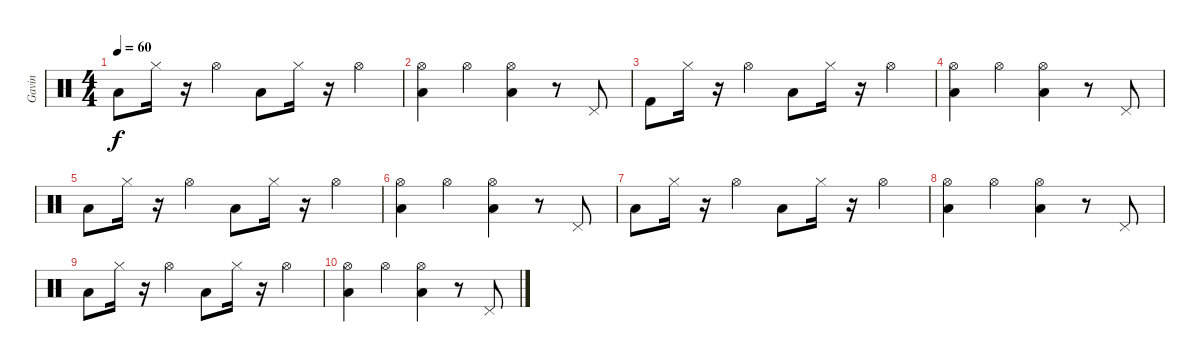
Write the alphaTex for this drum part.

\track ("Gavin" "Gavin") {instrument percussion}
\staff {score}
\articulation defaults
\ts (4 4)
\tempo 60
\clef neutral
\ks c "Low Floor Tom (hit)".8{dy f} "Hi-Hat (closed)".16
r.16 "Hi-Hat (open)".4 "Low Floor Tom (hit)".8 "Hi-Hat (closed)".16 r.16 "Hi-Hat (open)".4 |
("Hi-Hat (open)" "Low Floor Tom (hit)").4 "Hi-Hat (open)".4 ("Hi-Hat (open)" "Low Floor Tom (hit)").4 r.8 "Pedal Hi-Hat (hit)".8 |
"Kick (hit) 2".8 "Hi-Hat (closed)".16 r.16 "Hi-Hat (open)".4 "Low Floor Tom (hit)".8 "Hi-Hat (closed)".16 r.16 "Hi-Hat (open)".4 |
("Hi-Hat (open)" "Low Floor Tom (hit)").4 "Hi-Hat (open)".4 ("Hi-Hat (open)" "Low Floor Tom (hit)").4 r.8 "Pedal Hi-Hat (hit)".8 |
"Low Floor Tom (hit)".8 "Hi-Hat (closed)".16 r.16 "Hi-Hat (open)".4 "Low Floor Tom (hit)".8 "Hi-Hat (closed)".16 r.16 "Hi-Hat (open)".4 |
("Hi-Hat (open)" "Low Floor Tom (hit)").4 "Hi-Hat (open)".4 ("Hi-Hat (open)" "Low Floor Tom (hit)").4 r.8 "Pedal Hi-Hat (hit)".8 |
"Low Floor Tom (hit)".8 "Hi-Hat (closed)".16 r.16 "Hi-Hat (open)".4 "Low Floor Tom (hit)".8 "Hi-Hat (closed)".16 r.16 "Hi-Hat (open)".4 |
("Hi-Hat (open)" "Low Floor Tom (hit)").4 "Hi-Hat (open)".4 ("Hi-Hat (open)" "Low Floor Tom (hit)").4 r.8 "Pedal Hi-Hat (hit)".8 |
"Low Floor Tom (hit)".8 "Hi-Hat (closed)".16 r.16 "Hi-Hat (open)".4 "Low Floor Tom (hit)".8 "Hi-Hat (closed)".16 r.16 "Hi-Hat (open)".4 |
("Hi-Hat (open)" "Low Floor Tom (hit)").4 "Hi-Hat (open)".4 ("Hi-Hat (open)" "Low Floor Tom (hit)").4 r.8 "Pedal Hi-Hat (hit)".8
